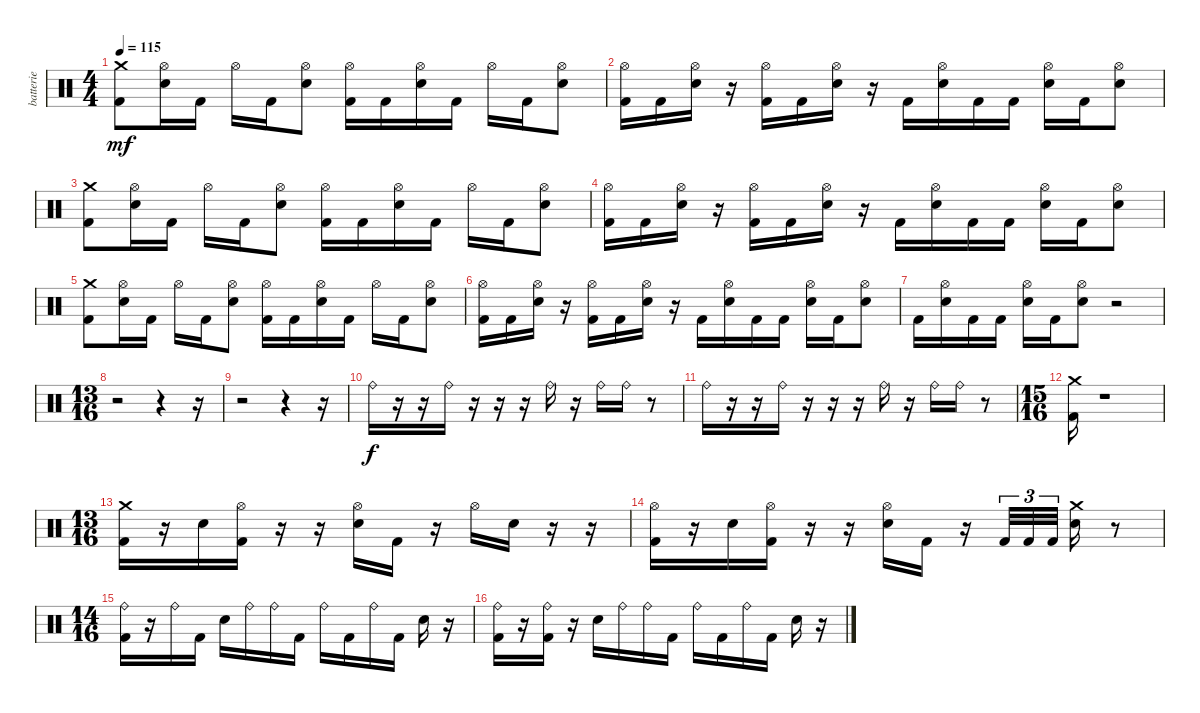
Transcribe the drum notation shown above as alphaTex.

\track ("batterie" "batterie") {instrument percussion}
\staff {score}
\articulation defaults
\ts (4 4)
\tempo 115
\clef neutral
\ks c
("Crash medium (hit)" "Kick (hit) 2").8{dy mf} ("Hi-Hat (open)" "Electric Snare (hit)").16 "Kick (hit) 2".16 "Hi-Hat (open)".16 "Kick (hit) 2".16 ("Hi-Hat (open)" "Electric Snare (hit)").8 ("Hi-Hat (open)" "Kick (hit) 2").16 "Kick (hit) 2".16 ("Hi-Hat (open)" "Electric Snare (hit)").16 "Kick (hit) 2".16 "Hi-Hat (open)".16 "Kick (hit) 2".16 ("Hi-Hat (open)" "Electric Snare (hit)").8 |
("Hi-Hat (open)" "Kick (hit) 2").16 "Kick (hit) 2".16 ("Hi-Hat (open)" "Electric Snare (hit)").16 r.16 ("Hi-Hat (open)" "Kick (hit) 2").16 "Kick (hit) 2".16 ("Hi-Hat (open)" "Electric Snare (hit)").16 r.16 "Kick (hit) 2".16 ("Hi-Hat (open)" "Electric Snare (hit)").16 "Kick (hit) 2".16 "Kick (hit) 2".16 ("Hi-Hat (open)" "Electric Snare (hit)").16 "Kick (hit) 2".16 ("Hi-Hat (open)" "Electric Snare (hit)").8 |
("Crash medium (hit)" "Kick (hit) 2").8 ("Hi-Hat (open)" "Electric Snare (hit)").16 "Kick (hit) 2".16 "Hi-Hat (open)".16 "Kick (hit) 2".16 ("Hi-Hat (open)" "Electric Snare (hit)").8 ("Hi-Hat (open)" "Kick (hit) 2").16 "Kick (hit) 2".16 ("Hi-Hat (open)" "Electric Snare (hit)").16 "Kick (hit) 2".16 "Hi-Hat (open)".16 "Kick (hit) 2".16 ("Hi-Hat (open)" "Electric Snare (hit)").8 |
("Hi-Hat (open)" "Kick (hit) 2").16 "Kick (hit) 2".16 ("Hi-Hat (open)" "Electric Snare (hit)").16 r.16 ("Hi-Hat (open)" "Kick (hit) 2").16 "Kick (hit) 2".16 ("Hi-Hat (open)" "Electric Snare (hit)").16 r.16 "Kick (hit) 2".16 ("Hi-Hat (open)" "Electric Snare (hit)").16 "Kick (hit) 2".16 "Kick (hit) 2".16 ("Hi-Hat (open)" "Electric Snare (hit)").16 "Kick (hit) 2".16 ("Hi-Hat (open)" "Electric Snare (hit)").8 |
("Crash medium (hit)" "Kick (hit) 2").8 ("Hi-Hat (open)" "Electric Snare (hit)").16 "Kick (hit) 2".16 "Hi-Hat (open)".16 "Kick (hit) 2".16 ("Hi-Hat (open)" "Electric Snare (hit)").8 ("Hi-Hat (open)" "Kick (hit) 2").16 "Kick (hit) 2".16 ("Hi-Hat (open)" "Electric Snare (hit)").16 "Kick (hit) 2".16 "Hi-Hat (open)".16 "Kick (hit) 2".16 ("Hi-Hat (open)" "Electric Snare (hit)").8 |
("Hi-Hat (open)" "Kick (hit) 2").16 "Kick (hit) 2".16 ("Hi-Hat (open)" "Electric Snare (hit)").16 r.16 ("Hi-Hat (open)" "Kick (hit) 2").16 "Kick (hit) 2".16 ("Hi-Hat (open)" "Electric Snare (hit)").16 r.16 "Kick (hit) 2".16 ("Hi-Hat (open)" "Electric Snare (hit)").16 "Kick (hit) 2".16 "Kick (hit) 2".16 ("Hi-Hat (open)" "Electric Snare (hit)").16 "Kick (hit) 2".16 ("Hi-Hat (open)" "Electric Snare (hit)").8 |
"Kick (hit) 2".16 ("Hi-Hat (open)" "Electric Snare (hit)").16 "Kick (hit) 2".16 "Kick (hit) 2".16 ("Hi-Hat (open)" "Electric Snare (hit)").16 "Kick (hit) 2".16 ("Hi-Hat (open)" "Electric Snare (hit)").8 r.2 |
\ts (13 16)
r.2 r.4 r.16 |
r.2 r.4 r.16 |
"Ride (bell)".16{dy f} r.16 r.16 "Ride (bell)".16 r.16 r.16 r.16 "Ride (bell)".16 r.16 "Ride (bell)".16 "Ride (bell)".16 r.8 |
"Ride (bell)".16 r.16 r.16 "Ride (bell)".16 r.16 r.16 r.16 "Ride (bell)".16 r.16 "Ride (bell)".16 "Ride (bell)".16 r.8 |
\ts (15 16)
("Kick (hit) 2" "Crash medium (hit)").16 r.1 |
\ts (13 16)
("Crash medium (hit)" "Kick (hit) 2").16 r.16 "Electric Snare (hit)".16 ("Hi-Hat (open)" "Kick (hit) 2").16 r.16 r.16 ("Hi-Hat (open)" "Electric Snare (hit)").16 "Kick (hit) 2".16 r.16 "Hi-Hat (open)".16 "Electric Snare (hit)".16 r.16 r.16 |
("Hi-Hat (open)" "Kick (hit) 2").16 r.16 "Electric Snare (hit)".16 ("Hi-Hat (open)" "Kick (hit) 2").16 r.16 r.16 ("Hi-Hat (open)" "Electric Snare (hit)").16 "Kick (hit) 2".16 r.16 "Kick (hit) 2".32{tu (3 2)} "Kick (hit) 2".32{tu (3 2)} "Kick (hit) 2".32{tu (3 2)} ("Crash medium (hit)" "Electric Snare (hit)").16 r.8 |
\ts (14 16)
("Ride (bell)" "Kick (hit) 2").16 r.16 "Ride (bell)".16 "Kick (hit) 2".16 "Electric Snare (hit)".16 "Ride (bell)".16 "Ride (bell)".16 "Kick (hit) 2".16 "Ride (bell)".16 "Kick (hit) 2".16 "Ride (bell)".16 "Kick (hit) 2".16 "Electric Snare (hit)".16 r.16 |
("Ride (bell)" "Kick (hit) 2").16 r.16 ("Ride (bell)" "Kick (hit) 2").16 r.16 "Electric Snare (hit)".16 "Ride (bell)".16 "Ride (bell)".16 "Kick (hit) 2".16 "Ride (bell)".16 "Kick (hit) 2".16 "Ride (bell)".16 "Kick (hit) 2".16 "Electric Snare (hit)".16 r.16
